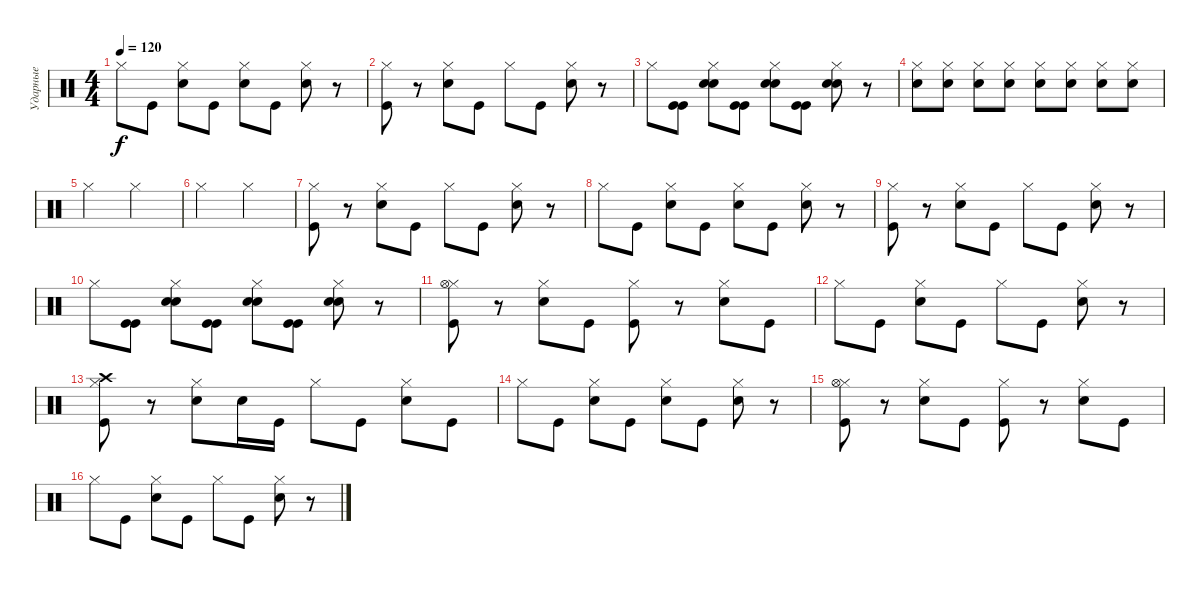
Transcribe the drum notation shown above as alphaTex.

\track ("Ударные" "Ударные") {instrument percussion}
\staff {score}
\articulation defaults
\ts (4 4)
\tempo 120
\clef neutral
\ks c "Hi-Hat (closed)".8{dy f} "Kick (hit)".8
("Hi-Hat (closed)" "Snare (hit) 2").8 "Kick (hit)".8 ("Hi-Hat (closed)" "Snare (hit) 2").8 "Kick (hit)".8 ("Hi-Hat (closed)" "Snare (hit) 2").8 r.8 |
("Hi-Hat (closed)" "Kick (hit)").8 r.8 ("Hi-Hat (closed)" "Snare (hit) 2").8 "Kick (hit)".8 "Hi-Hat (closed)".8 "Kick (hit)".8 ("Hi-Hat (closed)" "Snare (hit) 2").8 r.8 |
"Hi-Hat (closed)".8 ("Kick (hit)" "Kick (hit)").8 ("Hi-Hat (closed)" "Snare (hit) 2" "Snare (hit) 2").8 ("Kick (hit)" "Kick (hit)").8 ("Hi-Hat (closed)" "Snare (hit) 2" "Snare (hit) 2").8 ("Kick (hit)" "Kick (hit)").8 ("Hi-Hat (closed)" "Snare (hit) 2" "Snare (hit) 2").8 r.8 |
("Hi-Hat (closed)" "Snare (hit) 2").8 ("Hi-Hat (closed)" "Snare (hit) 2").8 ("Hi-Hat (closed)" "Snare (hit) 2").8 ("Hi-Hat (closed)" "Snare (hit) 2").8 ("Hi-Hat (closed)" "Snare (hit) 2").8 ("Hi-Hat (closed)" "Snare (hit) 2").8 ("Hi-Hat (closed)" "Snare (hit) 2").8 ("Hi-Hat (closed)" "Snare (hit) 2").8 |
"Hi-Hat (closed)".2 "Hi-Hat (closed)".2 |
"Hi-Hat (closed)".2 "Hi-Hat (closed)".2 |
("Hi-Hat (closed)" "Kick (hit)").8 r.8 ("Hi-Hat (closed)" "Snare (hit) 2").8 "Kick (hit)".8 "Hi-Hat (closed)".8 "Kick (hit)".8 ("Hi-Hat (closed)" "Snare (hit) 2").8 r.8 |
"Hi-Hat (closed)".8 "Kick (hit)".8 ("Hi-Hat (closed)" "Snare (hit) 2").8 "Kick (hit)".8 ("Hi-Hat (closed)" "Snare (hit) 2").8 "Kick (hit)".8 ("Hi-Hat (closed)" "Snare (hit) 2").8 r.8 |
("Hi-Hat (closed)" "Kick (hit)").8 r.8 ("Hi-Hat (closed)" "Snare (hit) 2").8 "Kick (hit)".8 "Hi-Hat (closed)".8 "Kick (hit)".8 ("Hi-Hat (closed)" "Snare (hit) 2").8 r.8 |
"Hi-Hat (closed)".8 ("Kick (hit)" "Kick (hit)").8 ("Hi-Hat (closed)" "Snare (hit) 2" "Snare (hit) 2").8 ("Kick (hit)" "Kick (hit)").8 ("Hi-Hat (closed)" "Snare (hit) 2" "Snare (hit) 2").8 ("Kick (hit)" "Kick (hit)").8 ("Hi-Hat (closed)" "Snare (hit) 2" "Snare (hit) 2").8 r.8 |
("Hi-Hat (closed)" "Kick (hit)" "Hi-Hat (open)").8 r.8 ("Hi-Hat (closed)" "Snare (hit) 2").8 "Kick (hit)".8 ("Hi-Hat (closed)" "Kick (hit)").8 r.8 ("Hi-Hat (closed)" "Snare (hit) 2").8 "Kick (hit)".8 |
"Hi-Hat (closed)".8 "Kick (hit)".8 ("Hi-Hat (closed)" "Snare (hit) 2").8 "Kick (hit)".8 "Hi-Hat (closed)".8 "Kick (hit)".8 ("Hi-Hat (closed)" "Snare (hit) 2").8 r.8 |
("Hi-Hat (closed)" "Crash high (hit)" "Kick (hit)").8 r.8 ("Hi-Hat (closed)" "Snare (hit) 2").8 "Snare (hit) 2".16 "Kick (hit)".16 "Hi-Hat (closed)".8 "Kick (hit)".8 ("Hi-Hat (closed)" "Snare (hit) 2").8 "Kick (hit)".8 |
"Hi-Hat (closed)".8 "Kick (hit)".8 ("Hi-Hat (closed)" "Snare (hit) 2").8 "Kick (hit)".8 ("Hi-Hat (closed)" "Snare (hit) 2").8 "Kick (hit)".8 ("Hi-Hat (closed)" "Snare (hit) 2").8 r.8 |
("Hi-Hat (closed)" "Kick (hit)" "Hi-Hat (open)").8 r.8 ("Hi-Hat (closed)" "Snare (hit) 2").8 "Kick (hit)".8 ("Hi-Hat (closed)" "Kick (hit)").8 r.8 ("Hi-Hat (closed)" "Snare (hit) 2").8 "Kick (hit)".8 |
"Hi-Hat (closed)".8 "Kick (hit)".8 ("Hi-Hat (closed)" "Snare (hit) 2").8 "Kick (hit)".8 "Hi-Hat (closed)".8 "Kick (hit)".8 ("Hi-Hat (closed)" "Snare (hit) 2").8 r.8
